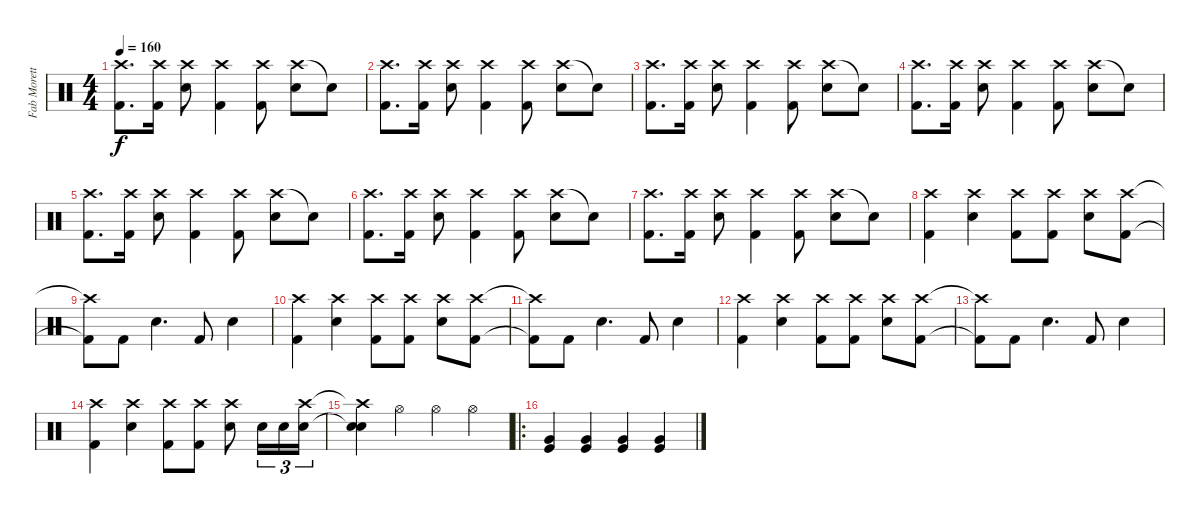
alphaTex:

\track ("Fab Moretti " "Fab Morett") {instrument percussion}
\staff {score}
\articulation defaults
\ts (4 4)
\tempo 160
\clef neutral
\ks c
("Crash high (hit)" "Kick (hit) 2").8{d dy f} ("Crash high (hit)" "Kick (hit) 2").16 ("Crash high (hit)" "Electric Snare (hit)").8 ("Crash high (hit)" "Kick (hit) 2").4 ("Crash high (hit)" "Kick (hit) 2").8 ("Crash high (hit)" "Electric Snare (hit)").8 "Electric Snare (hit)"{t}.8 |
("Crash high (hit)" "Kick (hit) 2").8{d} ("Crash high (hit)" "Kick (hit) 2").16 ("Crash high (hit)" "Electric Snare (hit)").8 ("Crash high (hit)" "Kick (hit) 2").4 ("Crash high (hit)" "Kick (hit) 2").8 ("Crash high (hit)" "Electric Snare (hit)").8 "Electric Snare (hit)"{t}.8 |
("Crash high (hit)" "Kick (hit) 2").8{d} ("Crash high (hit)" "Kick (hit) 2").16 ("Crash high (hit)" "Electric Snare (hit)").8 ("Crash high (hit)" "Kick (hit) 2").4 ("Crash high (hit)" "Kick (hit) 2").8 ("Crash high (hit)" "Electric Snare (hit)").8 "Electric Snare (hit)"{t}.8 |
("Crash high (hit)" "Kick (hit) 2").8{d} ("Crash high (hit)" "Kick (hit) 2").16 ("Crash high (hit)" "Electric Snare (hit)").8 ("Crash high (hit)" "Kick (hit) 2").4 ("Crash high (hit)" "Kick (hit) 2").8 ("Crash high (hit)" "Electric Snare (hit)").8 "Electric Snare (hit)"{t}.8 |
("Crash high (hit)" "Kick (hit) 2").8{d} ("Crash high (hit)" "Kick (hit) 2").16 ("Crash high (hit)" "Electric Snare (hit)").8 ("Crash high (hit)" "Kick (hit) 2").4 ("Crash high (hit)" "Kick (hit) 2").8 ("Crash high (hit)" "Electric Snare (hit)").8 "Electric Snare (hit)"{t}.8 |
("Crash high (hit)" "Kick (hit) 2").8{d} ("Crash high (hit)" "Kick (hit) 2").16 ("Crash high (hit)" "Electric Snare (hit)").8 ("Crash high (hit)" "Kick (hit) 2").4 ("Crash high (hit)" "Kick (hit) 2").8 ("Crash high (hit)" "Electric Snare (hit)").8 "Electric Snare (hit)"{t}.8 |
("Crash high (hit)" "Kick (hit) 2").8{d} ("Crash high (hit)" "Kick (hit) 2").16 ("Crash high (hit)" "Electric Snare (hit)").8 ("Crash high (hit)" "Kick (hit) 2").4 ("Crash high (hit)" "Kick (hit) 2").8 ("Crash high (hit)" "Electric Snare (hit)").8 "Electric Snare (hit)"{t}.8 |
("Crash high (hit)" "Kick (hit) 2").4 ("Crash high (hit)" "Electric Snare (hit)").4 ("Crash high (hit)" "Kick (hit) 2").8 ("Crash high (hit)" "Kick (hit) 2").8 ("Crash high (hit)" "Electric Snare (hit)").8 ("Crash high (hit)" "Kick (hit) 2").8 |
("Crash high (hit)"{t} "Kick (hit) 2"{t}).8 "Kick (hit) 2".8 "Electric Snare (hit)".4{d} "Kick (hit) 2".8 "Electric Snare (hit)".4 |
("Crash high (hit)" "Kick (hit) 2").4 ("Crash high (hit)" "Electric Snare (hit)").4 ("Crash high (hit)" "Kick (hit) 2").8 ("Crash high (hit)" "Kick (hit) 2").8 ("Crash high (hit)" "Electric Snare (hit)").8 ("Crash high (hit)" "Kick (hit) 2").8 |
("Crash high (hit)"{t} "Kick (hit) 2"{t}).8 "Kick (hit) 2".8 "Electric Snare (hit)".4{d} "Kick (hit) 2".8 "Electric Snare (hit)".4 |
("Crash high (hit)" "Kick (hit) 2").4 ("Crash high (hit)" "Electric Snare (hit)").4 ("Crash high (hit)" "Kick (hit) 2").8 ("Crash high (hit)" "Kick (hit) 2").8 ("Crash high (hit)" "Electric Snare (hit)").8 ("Crash high (hit)" "Kick (hit) 2").8 |
("Crash high (hit)"{t} "Kick (hit) 2"{t}).8 "Kick (hit) 2".8 "Electric Snare (hit)".4{d} "Kick (hit) 2".8 "Electric Snare (hit)".4 |
("Crash high (hit)" "Kick (hit) 2").4 ("Crash high (hit)" "Electric Snare (hit)").4 ("Crash high (hit)" "Kick (hit) 2").8 ("Crash high (hit)" "Kick (hit) 2").8 ("Crash high (hit)" "Electric Snare (hit)").8 "Electric Snare (hit)".16{tu (3 2)} "Electric Snare (hit)".16{tu (3 2) beam merge} ("Electric Snare (hit)" "Crash high (hit)").16{tu (3 2)} |
("Electric Snare (hit)"{t} "Crash high (hit)"{t} "Snare (hit)").4 "Hi-Hat (open)".4 "Hi-Hat (open)".4 "Hi-Hat (open)".4 |
\ro
("Very Low Tom (hit)" "Kick (hit)").4 ("Very Low Tom (hit)" "Kick (hit)").4 ("Very Low Tom (hit)" "Kick (hit)").4 ("Very Low Tom (hit)" "Kick (hit)").4
